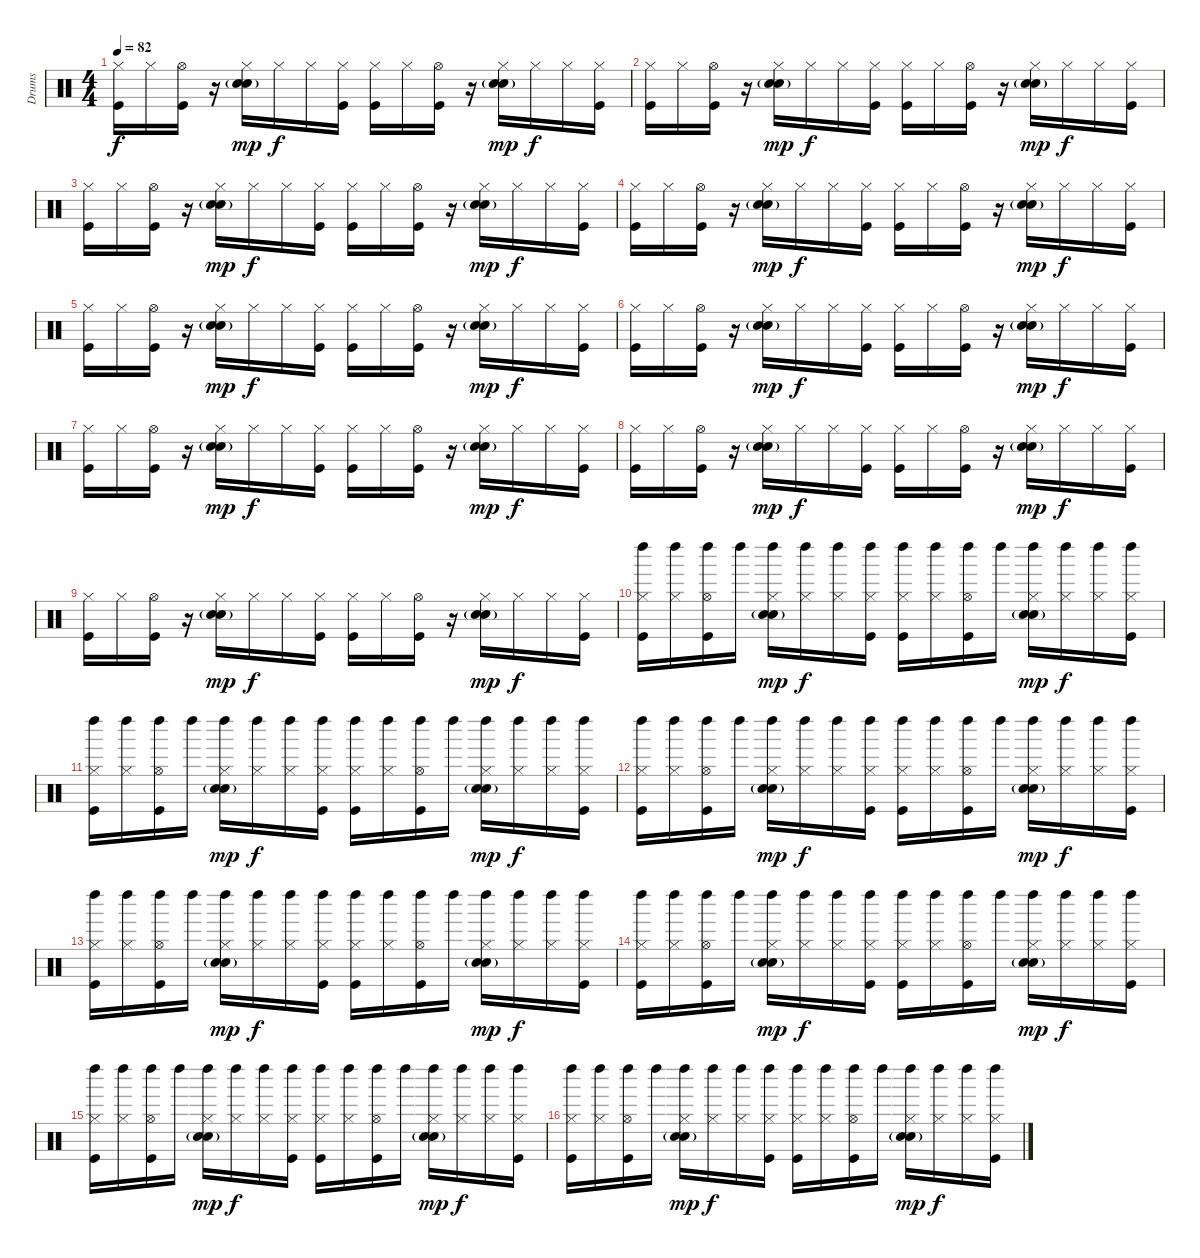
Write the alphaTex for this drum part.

\track ("Drums" "Drums") {instrument percussion}
\staff {score}
\articulation defaults
\ts (4 4)
\tempo 82
\clef neutral
\ks c
("Hi-Hat (closed)" "Kick (hit)").16{dy f} "Hi-Hat (closed)".16 ("Hi-Hat (open)" "Kick (hit)").16 r.16 ("Hi-Hat (closed)" "Hand Clap (hit)" "Electric Snare (hit)"{g}).16{dy mp} "Hi-Hat (closed)".16{dy f} "Hi-Hat (closed)".16 ("Hi-Hat (closed)" "Kick (hit)").16 ("Hi-Hat (closed)" "Kick (hit)").16 "Hi-Hat (closed)".16 ("Hi-Hat (open)" "Kick (hit)").16 r.16 ("Hi-Hat (closed)" "Hand Clap (hit)" "Electric Snare (hit)"{g}).16{dy mp} "Hi-Hat (closed)".16{dy f} "Hi-Hat (closed)".16 ("Hi-Hat (closed)" "Kick (hit)").16 |
("Hi-Hat (closed)" "Kick (hit)").16 "Hi-Hat (closed)".16 ("Hi-Hat (open)" "Kick (hit)").16 r.16 ("Hi-Hat (closed)" "Hand Clap (hit)" "Electric Snare (hit)"{g}).16{dy mp} "Hi-Hat (closed)".16{dy f} "Hi-Hat (closed)".16 ("Hi-Hat (closed)" "Kick (hit)").16 ("Hi-Hat (closed)" "Kick (hit)").16 "Hi-Hat (closed)".16 ("Hi-Hat (open)" "Kick (hit)").16 r.16 ("Hi-Hat (closed)" "Hand Clap (hit)" "Electric Snare (hit)"{g}).16{dy mp} "Hi-Hat (closed)".16{dy f} "Hi-Hat (closed)".16 ("Hi-Hat (closed)" "Kick (hit)").16 |
("Hi-Hat (closed)" "Kick (hit)").16 "Hi-Hat (closed)".16 ("Hi-Hat (open)" "Kick (hit)").16 r.16 ("Hi-Hat (closed)" "Hand Clap (hit)" "Electric Snare (hit)"{g}).16{dy mp} "Hi-Hat (closed)".16{dy f} "Hi-Hat (closed)".16 ("Hi-Hat (closed)" "Kick (hit)").16 ("Hi-Hat (closed)" "Kick (hit)").16 "Hi-Hat (closed)".16 ("Hi-Hat (open)" "Kick (hit)").16 r.16 ("Hi-Hat (closed)" "Hand Clap (hit)" "Electric Snare (hit)"{g}).16{dy mp} "Hi-Hat (closed)".16{dy f} "Hi-Hat (closed)".16 ("Hi-Hat (closed)" "Kick (hit)").16 |
("Hi-Hat (closed)" "Kick (hit)").16 "Hi-Hat (closed)".16 ("Hi-Hat (open)" "Kick (hit)").16 r.16 ("Hi-Hat (closed)" "Hand Clap (hit)" "Electric Snare (hit)"{g}).16{dy mp} "Hi-Hat (closed)".16{dy f} "Hi-Hat (closed)".16 ("Hi-Hat (closed)" "Kick (hit)").16 ("Hi-Hat (closed)" "Kick (hit)").16 "Hi-Hat (closed)".16 ("Hi-Hat (open)" "Kick (hit)").16 r.16 ("Hi-Hat (closed)" "Hand Clap (hit)" "Electric Snare (hit)"{g}).16{dy mp} "Hi-Hat (closed)".16{dy f} "Hi-Hat (closed)".16 ("Hi-Hat (closed)" "Kick (hit)").16 |
("Hi-Hat (closed)" "Kick (hit)").16 "Hi-Hat (closed)".16 ("Hi-Hat (open)" "Kick (hit)").16 r.16 ("Hi-Hat (closed)" "Hand Clap (hit)" "Electric Snare (hit)"{g}).16{dy mp} "Hi-Hat (closed)".16{dy f} "Hi-Hat (closed)".16 ("Hi-Hat (closed)" "Kick (hit)").16 ("Hi-Hat (closed)" "Kick (hit)").16 "Hi-Hat (closed)".16 ("Hi-Hat (open)" "Kick (hit)").16 r.16 ("Hi-Hat (closed)" "Hand Clap (hit)" "Electric Snare (hit)"{g}).16{dy mp} "Hi-Hat (closed)".16{dy f} "Hi-Hat (closed)".16 ("Hi-Hat (closed)" "Kick (hit)").16 |
("Hi-Hat (closed)" "Kick (hit)").16 "Hi-Hat (closed)".16 ("Hi-Hat (open)" "Kick (hit)").16 r.16 ("Hi-Hat (closed)" "Hand Clap (hit)" "Electric Snare (hit)"{g}).16{dy mp} "Hi-Hat (closed)".16{dy f} "Hi-Hat (closed)".16 ("Hi-Hat (closed)" "Kick (hit)").16 ("Hi-Hat (closed)" "Kick (hit)").16 "Hi-Hat (closed)".16 ("Hi-Hat (open)" "Kick (hit)").16 r.16 ("Hi-Hat (closed)" "Hand Clap (hit)" "Electric Snare (hit)"{g}).16{dy mp} "Hi-Hat (closed)".16{dy f} "Hi-Hat (closed)".16 ("Hi-Hat (closed)" "Kick (hit)").16 |
("Hi-Hat (closed)" "Kick (hit)").16 "Hi-Hat (closed)".16 ("Hi-Hat (open)" "Kick (hit)").16 r.16 ("Hi-Hat (closed)" "Hand Clap (hit)" "Electric Snare (hit)"{g}).16{dy mp} "Hi-Hat (closed)".16{dy f} "Hi-Hat (closed)".16 ("Hi-Hat (closed)" "Kick (hit)").16 ("Hi-Hat (closed)" "Kick (hit)").16 "Hi-Hat (closed)".16 ("Hi-Hat (open)" "Kick (hit)").16 r.16 ("Hi-Hat (closed)" "Hand Clap (hit)" "Electric Snare (hit)"{g}).16{dy mp} "Hi-Hat (closed)".16{dy f} "Hi-Hat (closed)".16 ("Hi-Hat (closed)" "Kick (hit)").16 |
("Hi-Hat (closed)" "Kick (hit)").16 "Hi-Hat (closed)".16 ("Hi-Hat (open)" "Kick (hit)").16 r.16 ("Hi-Hat (closed)" "Hand Clap (hit)" "Electric Snare (hit)"{g}).16{dy mp} "Hi-Hat (closed)".16{dy f} "Hi-Hat (closed)".16 ("Hi-Hat (closed)" "Kick (hit)").16 ("Hi-Hat (closed)" "Kick (hit)").16 "Hi-Hat (closed)".16 ("Hi-Hat (open)" "Kick (hit)").16 r.16 ("Hi-Hat (closed)" "Hand Clap (hit)" "Electric Snare (hit)"{g}).16{dy mp} "Hi-Hat (closed)".16{dy f} "Hi-Hat (closed)".16 ("Hi-Hat (closed)" "Kick (hit)").16 |
("Hi-Hat (closed)" "Kick (hit)").16 "Hi-Hat (closed)".16 ("Hi-Hat (open)" "Kick (hit)").16 r.16 ("Hi-Hat (closed)" "Hand Clap (hit)" "Electric Snare (hit)"{g}).16{dy mp} "Hi-Hat (closed)".16{dy f} "Hi-Hat (closed)".16 ("Hi-Hat (closed)" "Kick (hit)").16 ("Hi-Hat (closed)" "Kick (hit)").16 "Hi-Hat (closed)".16 ("Hi-Hat (open)" "Kick (hit)").16 r.16 ("Hi-Hat (closed)" "Hand Clap (hit)" "Electric Snare (hit)"{g}).16{dy mp} "Hi-Hat (closed)".16{dy f} "Hi-Hat (closed)".16 ("Hi-Hat (closed)" "Kick (hit)").16 |
("Left Maraca (hit)" "Hi-Hat (closed)" "Kick (hit)").16 ("Left Maraca (hit)" "Hi-Hat (closed)").16 ("Left Maraca (hit)" "Hi-Hat (open)" "Kick (hit)").16 "Left Maraca (hit)".16 ("Left Maraca (hit)" "Hi-Hat (closed)" "Hand Clap (hit)" "Electric Snare (hit)"{g}).16{dy mp} ("Left Maraca (hit)" "Hi-Hat (closed)").16{dy f} ("Left Maraca (hit)" "Hi-Hat (closed)").16 ("Left Maraca (hit)" "Hi-Hat (closed)" "Kick (hit)").16 ("Left Maraca (hit)" "Hi-Hat (closed)" "Kick (hit)").16 ("Left Maraca (hit)" "Hi-Hat (closed)").16 ("Left Maraca (hit)" "Hi-Hat (open)" "Kick (hit)").16 "Left Maraca (hit)".16 ("Left Maraca (hit)" "Hi-Hat (closed)" "Hand Clap (hit)" "Electric Snare (hit)"{g}).16{dy mp} ("Left Maraca (hit)" "Hi-Hat (closed)").16{dy f} ("Left Maraca (hit)" "Hi-Hat (closed)").16 ("Left Maraca (hit)" "Hi-Hat (closed)" "Kick (hit)").16 |
("Left Maraca (hit)" "Hi-Hat (closed)" "Kick (hit)").16 ("Left Maraca (hit)" "Hi-Hat (closed)").16 ("Left Maraca (hit)" "Hi-Hat (open)" "Kick (hit)").16 "Left Maraca (hit)".16 ("Left Maraca (hit)" "Hi-Hat (closed)" "Hand Clap (hit)" "Electric Snare (hit)"{g}).16{dy mp} ("Left Maraca (hit)" "Hi-Hat (closed)").16{dy f} ("Left Maraca (hit)" "Hi-Hat (closed)").16 ("Left Maraca (hit)" "Hi-Hat (closed)" "Kick (hit)").16 ("Left Maraca (hit)" "Hi-Hat (closed)" "Kick (hit)").16 ("Left Maraca (hit)" "Hi-Hat (closed)").16 ("Left Maraca (hit)" "Hi-Hat (open)" "Kick (hit)").16 "Left Maraca (hit)".16 ("Left Maraca (hit)" "Hi-Hat (closed)" "Hand Clap (hit)" "Electric Snare (hit)"{g}).16{dy mp} ("Left Maraca (hit)" "Hi-Hat (closed)").16{dy f} ("Left Maraca (hit)" "Hi-Hat (closed)").16 ("Left Maraca (hit)" "Hi-Hat (closed)" "Kick (hit)").16 |
("Left Maraca (hit)" "Hi-Hat (closed)" "Kick (hit)").16 ("Left Maraca (hit)" "Hi-Hat (closed)").16 ("Left Maraca (hit)" "Hi-Hat (open)" "Kick (hit)").16 "Left Maraca (hit)".16 ("Left Maraca (hit)" "Hi-Hat (closed)" "Hand Clap (hit)" "Electric Snare (hit)"{g}).16{dy mp} ("Left Maraca (hit)" "Hi-Hat (closed)").16{dy f} ("Left Maraca (hit)" "Hi-Hat (closed)").16 ("Left Maraca (hit)" "Hi-Hat (closed)" "Kick (hit)").16 ("Left Maraca (hit)" "Hi-Hat (closed)" "Kick (hit)").16 ("Left Maraca (hit)" "Hi-Hat (closed)").16 ("Left Maraca (hit)" "Hi-Hat (open)" "Kick (hit)").16 "Left Maraca (hit)".16 ("Left Maraca (hit)" "Hi-Hat (closed)" "Hand Clap (hit)" "Electric Snare (hit)"{g}).16{dy mp} ("Left Maraca (hit)" "Hi-Hat (closed)").16{dy f} ("Left Maraca (hit)" "Hi-Hat (closed)").16 ("Left Maraca (hit)" "Hi-Hat (closed)" "Kick (hit)").16 |
("Left Maraca (hit)" "Hi-Hat (closed)" "Kick (hit)").16 ("Left Maraca (hit)" "Hi-Hat (closed)").16 ("Left Maraca (hit)" "Hi-Hat (open)" "Kick (hit)").16 "Left Maraca (hit)".16 ("Left Maraca (hit)" "Hi-Hat (closed)" "Hand Clap (hit)" "Electric Snare (hit)"{g}).16{dy mp} ("Left Maraca (hit)" "Hi-Hat (closed)").16{dy f} ("Left Maraca (hit)" "Hi-Hat (closed)").16 ("Left Maraca (hit)" "Hi-Hat (closed)" "Kick (hit)").16 ("Left Maraca (hit)" "Hi-Hat (closed)" "Kick (hit)").16 ("Left Maraca (hit)" "Hi-Hat (closed)").16 ("Left Maraca (hit)" "Hi-Hat (open)" "Kick (hit)").16 "Left Maraca (hit)".16 ("Left Maraca (hit)" "Hi-Hat (closed)" "Hand Clap (hit)" "Electric Snare (hit)"{g}).16{dy mp} ("Left Maraca (hit)" "Hi-Hat (closed)").16{dy f} ("Left Maraca (hit)" "Hi-Hat (closed)").16 ("Left Maraca (hit)" "Hi-Hat (closed)" "Kick (hit)").16 |
("Left Maraca (hit)" "Hi-Hat (closed)" "Kick (hit)").16 ("Left Maraca (hit)" "Hi-Hat (closed)").16 ("Left Maraca (hit)" "Hi-Hat (open)" "Kick (hit)").16 "Left Maraca (hit)".16 ("Left Maraca (hit)" "Hi-Hat (closed)" "Hand Clap (hit)" "Electric Snare (hit)"{g}).16{dy mp} ("Left Maraca (hit)" "Hi-Hat (closed)").16{dy f} ("Left Maraca (hit)" "Hi-Hat (closed)").16 ("Left Maraca (hit)" "Hi-Hat (closed)" "Kick (hit)").16 ("Left Maraca (hit)" "Hi-Hat (closed)" "Kick (hit)").16 ("Left Maraca (hit)" "Hi-Hat (closed)").16 ("Left Maraca (hit)" "Hi-Hat (open)" "Kick (hit)").16 "Left Maraca (hit)".16 ("Left Maraca (hit)" "Hi-Hat (closed)" "Hand Clap (hit)" "Electric Snare (hit)"{g}).16{dy mp} ("Left Maraca (hit)" "Hi-Hat (closed)").16{dy f} ("Left Maraca (hit)" "Hi-Hat (closed)").16 ("Left Maraca (hit)" "Hi-Hat (closed)" "Kick (hit)").16 |
("Left Maraca (hit)" "Hi-Hat (closed)" "Kick (hit)").16 ("Left Maraca (hit)" "Hi-Hat (closed)").16 ("Left Maraca (hit)" "Hi-Hat (open)" "Kick (hit)").16 "Left Maraca (hit)".16 ("Left Maraca (hit)" "Hi-Hat (closed)" "Hand Clap (hit)" "Electric Snare (hit)"{g}).16{dy mp} ("Left Maraca (hit)" "Hi-Hat (closed)").16{dy f} ("Left Maraca (hit)" "Hi-Hat (closed)").16 ("Left Maraca (hit)" "Hi-Hat (closed)" "Kick (hit)").16 ("Left Maraca (hit)" "Hi-Hat (closed)" "Kick (hit)").16 ("Left Maraca (hit)" "Hi-Hat (closed)").16 ("Left Maraca (hit)" "Hi-Hat (open)" "Kick (hit)").16 "Left Maraca (hit)".16 ("Left Maraca (hit)" "Hi-Hat (closed)" "Hand Clap (hit)" "Electric Snare (hit)"{g}).16{dy mp} ("Left Maraca (hit)" "Hi-Hat (closed)").16{dy f} ("Left Maraca (hit)" "Hi-Hat (closed)").16 ("Left Maraca (hit)" "Hi-Hat (closed)" "Kick (hit)").16 |
("Left Maraca (hit)" "Hi-Hat (closed)" "Kick (hit)").16 ("Left Maraca (hit)" "Hi-Hat (closed)").16 ("Left Maraca (hit)" "Hi-Hat (open)" "Kick (hit)").16 "Left Maraca (hit)".16 ("Left Maraca (hit)" "Hi-Hat (closed)" "Hand Clap (hit)" "Electric Snare (hit)"{g}).16{dy mp} ("Left Maraca (hit)" "Hi-Hat (closed)").16{dy f} ("Left Maraca (hit)" "Hi-Hat (closed)").16 ("Left Maraca (hit)" "Hi-Hat (closed)" "Kick (hit)").16 ("Left Maraca (hit)" "Hi-Hat (closed)" "Kick (hit)").16 ("Left Maraca (hit)" "Hi-Hat (closed)").16 ("Left Maraca (hit)" "Hi-Hat (open)" "Kick (hit)").16 "Left Maraca (hit)".16 ("Left Maraca (hit)" "Hi-Hat (closed)" "Hand Clap (hit)" "Electric Snare (hit)"{g}).16{dy mp} ("Left Maraca (hit)" "Hi-Hat (closed)").16{dy f} ("Left Maraca (hit)" "Hi-Hat (closed)").16 ("Left Maraca (hit)" "Hi-Hat (closed)" "Kick (hit)").16
